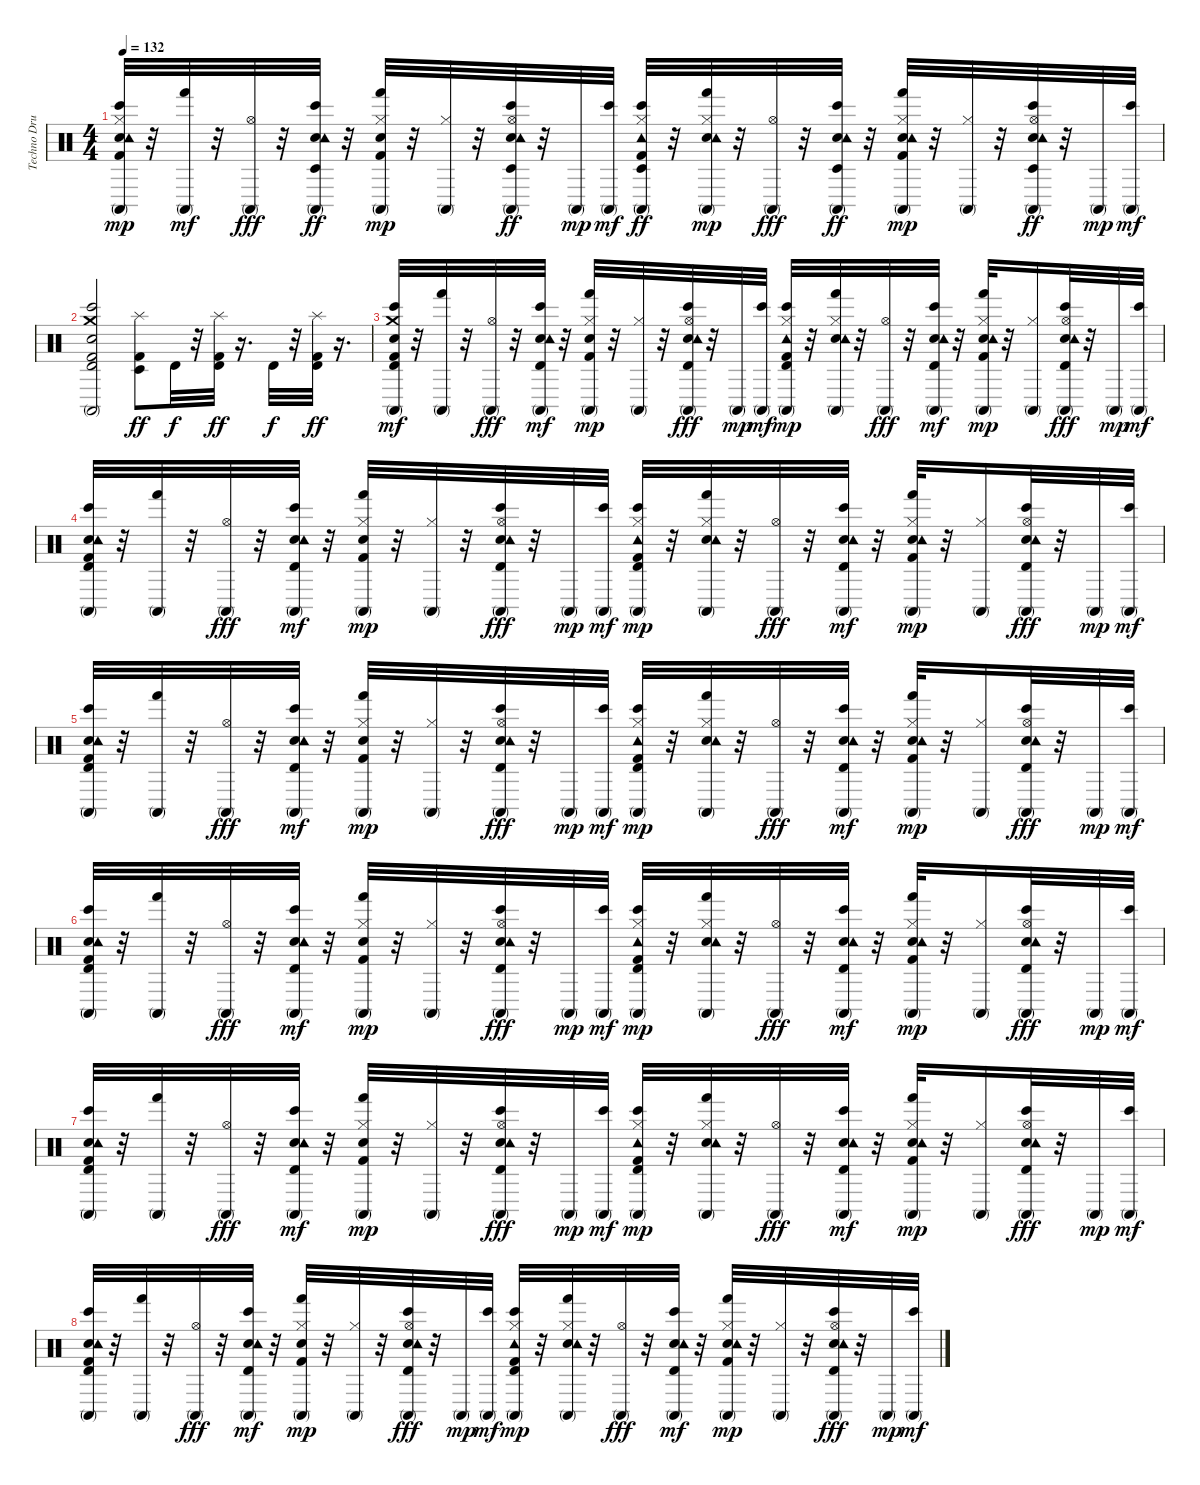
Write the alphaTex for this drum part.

\track ("Techno Drums" "Techno Dru") {instrument percussion}
\staff {score}
\articulation defaults
\ts (4 4)
\tempo 132
\clef neutral
\ks c
("Kick (hit) 2" "Hand Clap (hit)" "Tambourine (hit)" "Conga high (mute)" "Bongo High (hit)" "Hi-Hat (closed)").32{dy mp} r.32 ("Conga high (mute)" "Hand (hit)").32{dy mf} r.32 ("Conga high (mute)" "Hi-Hat (open)").32{dy fff} r.32 ("Hand Clap (hit)" "Tambourine (hit)" "Conga high (mute)" "Bongo High (hit)" "Timbale low (hit)").32{dy ff} r.32 ("Kick (hit) 2" "Hand Clap (hit)" "Conga high (mute)" "Hand (hit)" "Hi-Hat (closed)").32{dy mp} r.32 ("Conga high (mute)" "Hi-Hat (closed)").32 r.32 ("Hand Clap (hit)" "Tambourine (hit)" "Conga high (mute)" "Bongo High (hit)" "Hi-Hat (open)" "Timbale low (hit)").32{dy ff} r.32 "Conga high (mute)".32{dy mp} ("Conga high (mute)" "Bongo High (hit)").32{dy mf} ("Kick (hit) 2" "Tambourine (hit)" "Conga high (mute)" "Bongo High (hit)" "Hi-Hat (closed)" "Timbale low (hit)").32{dy ff} r.32 ("Hand Clap (hit)" "Tambourine (hit)" "Conga high (mute)" "Hand (hit)" "Hi-Hat (closed)").32{dy mp} r.32 ("Conga high (mute)" "Hi-Hat (open)").32{dy fff} r.32 ("Hand Clap (hit)" "Tambourine (hit)" "Conga high (mute)" "Bongo High (hit)" "Timbale low (hit)").32{dy ff} r.32 ("Kick (hit) 2" "Hand Clap (hit)" "Tambourine (hit)" "Conga high (mute)" "Hand (hit)" "Hi-Hat (closed)").32{dy mp} r.32 ("Conga high (mute)" "Hi-Hat (closed)").32 r.32 ("Hand Clap (hit)" "Tambourine (hit)" "Conga high (mute)" "Bongo High (hit)" "Hi-Hat (open)" "Timbale low (hit)").32{dy ff} r.32 "Conga high (mute)".32{dy mp} ("Conga high (mute)" "Bongo High (hit)").32{dy mf} |
("Kick (hit) 2" "Hand Clap (hit)" "Crash medium (hit)" "Conga high (mute)" "Bongo High (hit)" "Timbale high (hit)").2 ("Timbale low (hit)" "Splash (hit)" "Kick (hit) 2").8{dy ff} "Timbale high (hit)".32{dy f} r.32 ("Timbale high (hit)" "Splash (hit)" "Kick (hit) 2").32{dy ff} r.16{d} "Timbale high (hit)".32{dy f} r.32 ("Timbale high (hit)" "Splash (hit)" "Kick (hit) 2").32{dy ff} r.16{d} |
("Kick (hit) 2" "Hand Clap (hit)" "Crash medium (hit)" "Conga high (mute)" "Bongo High (hit)" "Timbale high (hit)").32{dy mf} r.32 ("Conga high (mute)" "Hand (hit)").32 r.32 ("Conga high (mute)" "Hi-Hat (open)").32{dy fff} r.32 ("Hand Clap (hit)" "Tambourine (hit)" "Conga high (mute)" "Bongo High (hit)" "Timbale high (hit)").32{dy mf} r.32 ("Kick (hit) 2" "Hand Clap (hit)" "Conga high (mute)" "Hand (hit)" "Hi-Hat (closed)").32{dy mp} r.32 ("Conga high (mute)" "Hi-Hat (closed)").32 r.32 ("Hand Clap (hit)" "Tambourine (hit)" "Conga high (mute)" "Bongo High (hit)" "Timbale high (hit)" "Hi-Hat (open)").32{dy fff} r.32 "Conga high (mute)".32{dy mp} ("Conga high (mute)" "Bongo High (hit)").32{dy mf} ("Kick (hit) 2" "Tambourine (hit)" "Conga high (mute)" "Bongo High (hit)" "Timbale high (hit)" "Hi-Hat (closed)").32{dy mp} r.32 ("Hand Clap (hit)" "Tambourine (hit)" "Conga high (mute)" "Hand (hit)" "Hi-Hat (closed)").32 r.32 ("Conga high (mute)" "Hi-Hat (open)").32{dy fff} r.32 ("Hand Clap (hit)" "Tambourine (hit)" "Conga high (mute)" "Bongo High (hit)" "Timbale high (hit)").32{dy mf} r.32 ("Kick (hit) 2" "Hand Clap (hit)" "Tambourine (hit)" "Conga high (mute)" "Hand (hit)" "Hi-Hat (closed)").32{dy mp} r.32 ("Conga high (mute)" "Hi-Hat (closed)").16 ("Hand Clap (hit)" "Tambourine (hit)" "Conga high (mute)" "Bongo High (hit)" "Timbale high (hit)" "Hi-Hat (open)").32{dy fff} r.32 "Conga high (mute)".32{dy mp} ("Conga high (mute)" "Bongo High (hit)").32{dy mf} |
("Kick (hit) 2" "Hand Clap (hit)" "Tambourine (hit)" "Conga high (mute)" "Bongo High (hit)" "Timbale high (hit)").32 r.32 ("Conga high (mute)" "Hand (hit)").32 r.32 ("Conga high (mute)" "Hi-Hat (open)").32{dy fff} r.32 ("Hand Clap (hit)" "Tambourine (hit)" "Conga high (mute)" "Bongo High (hit)" "Timbale high (hit)").32{dy mf} r.32 ("Kick (hit) 2" "Hand Clap (hit)" "Conga high (mute)" "Hand (hit)" "Hi-Hat (closed)").32{dy mp} r.32 ("Conga high (mute)" "Hi-Hat (closed)").32 r.32 ("Hand Clap (hit)" "Tambourine (hit)" "Conga high (mute)" "Bongo High (hit)" "Timbale high (hit)" "Hi-Hat (open)").32{dy fff} r.32 "Conga high (mute)".32{dy mp} ("Conga high (mute)" "Bongo High (hit)").32{dy mf} ("Kick (hit) 2" "Tambourine (hit)" "Conga high (mute)" "Bongo High (hit)" "Timbale high (hit)" "Hi-Hat (closed)").32{dy mp} r.32 ("Hand Clap (hit)" "Tambourine (hit)" "Conga high (mute)" "Hand (hit)" "Hi-Hat (closed)").32 r.32 ("Conga high (mute)" "Hi-Hat (open)").32{dy fff} r.32 ("Hand Clap (hit)" "Tambourine (hit)" "Conga high (mute)" "Bongo High (hit)" "Timbale high (hit)").32{dy mf} r.32 ("Kick (hit) 2" "Hand Clap (hit)" "Tambourine (hit)" "Conga high (mute)" "Hand (hit)" "Hi-Hat (closed)").32{dy mp} r.32 ("Conga high (mute)" "Hi-Hat (closed)").16 ("Hand Clap (hit)" "Tambourine (hit)" "Conga high (mute)" "Bongo High (hit)" "Timbale high (hit)" "Hi-Hat (open)").32{dy fff} r.32 "Conga high (mute)".32{dy mp} ("Conga high (mute)" "Bongo High (hit)").32{dy mf} |
("Kick (hit) 2" "Hand Clap (hit)" "Tambourine (hit)" "Conga high (mute)" "Bongo High (hit)" "Timbale high (hit)").32 r.32 ("Conga high (mute)" "Hand (hit)").32 r.32 ("Conga high (mute)" "Hi-Hat (open)").32{dy fff} r.32 ("Hand Clap (hit)" "Tambourine (hit)" "Conga high (mute)" "Bongo High (hit)" "Timbale high (hit)").32{dy mf} r.32 ("Kick (hit) 2" "Hand Clap (hit)" "Conga high (mute)" "Hand (hit)" "Hi-Hat (closed)").32{dy mp} r.32 ("Conga high (mute)" "Hi-Hat (closed)").32 r.32 ("Hand Clap (hit)" "Tambourine (hit)" "Conga high (mute)" "Bongo High (hit)" "Timbale high (hit)" "Hi-Hat (open)").32{dy fff} r.32 "Conga high (mute)".32{dy mp} ("Conga high (mute)" "Bongo High (hit)").32{dy mf} ("Kick (hit) 2" "Tambourine (hit)" "Conga high (mute)" "Bongo High (hit)" "Timbale high (hit)" "Hi-Hat (closed)").32{dy mp} r.32 ("Hand Clap (hit)" "Tambourine (hit)" "Conga high (mute)" "Hand (hit)" "Hi-Hat (closed)").32 r.32 ("Conga high (mute)" "Hi-Hat (open)").32{dy fff} r.32 ("Hand Clap (hit)" "Tambourine (hit)" "Conga high (mute)" "Bongo High (hit)" "Timbale high (hit)").32{dy mf} r.32 ("Kick (hit) 2" "Hand Clap (hit)" "Tambourine (hit)" "Conga high (mute)" "Hand (hit)" "Hi-Hat (closed)").32{dy mp} r.32 ("Conga high (mute)" "Hi-Hat (closed)").16 ("Hand Clap (hit)" "Tambourine (hit)" "Conga high (mute)" "Bongo High (hit)" "Timbale high (hit)" "Hi-Hat (open)").32{dy fff} r.32 "Conga high (mute)".32{dy mp} ("Conga high (mute)" "Bongo High (hit)").32{dy mf} |
("Kick (hit) 2" "Hand Clap (hit)" "Tambourine (hit)" "Conga high (mute)" "Bongo High (hit)" "Timbale high (hit)").32 r.32 ("Conga high (mute)" "Hand (hit)").32 r.32 ("Conga high (mute)" "Hi-Hat (open)").32{dy fff} r.32 ("Hand Clap (hit)" "Tambourine (hit)" "Conga high (mute)" "Bongo High (hit)" "Timbale high (hit)").32{dy mf} r.32 ("Kick (hit) 2" "Hand Clap (hit)" "Conga high (mute)" "Hand (hit)" "Hi-Hat (closed)").32{dy mp} r.32 ("Conga high (mute)" "Hi-Hat (closed)").32 r.32 ("Hand Clap (hit)" "Tambourine (hit)" "Conga high (mute)" "Bongo High (hit)" "Timbale high (hit)" "Hi-Hat (open)").32{dy fff} r.32 "Conga high (mute)".32{dy mp} ("Conga high (mute)" "Bongo High (hit)").32{dy mf} ("Kick (hit) 2" "Tambourine (hit)" "Conga high (mute)" "Bongo High (hit)" "Timbale high (hit)" "Hi-Hat (closed)").32{dy mp} r.32 ("Hand Clap (hit)" "Tambourine (hit)" "Conga high (mute)" "Hand (hit)" "Hi-Hat (closed)").32 r.32 ("Conga high (mute)" "Hi-Hat (open)").32{dy fff} r.32 ("Hand Clap (hit)" "Tambourine (hit)" "Conga high (mute)" "Bongo High (hit)" "Timbale high (hit)").32{dy mf} r.32 ("Kick (hit) 2" "Hand Clap (hit)" "Tambourine (hit)" "Conga high (mute)" "Hand (hit)" "Hi-Hat (closed)").32{dy mp} r.32 ("Conga high (mute)" "Hi-Hat (closed)").16 ("Hand Clap (hit)" "Tambourine (hit)" "Conga high (mute)" "Bongo High (hit)" "Timbale high (hit)" "Hi-Hat (open)").32{dy fff} r.32 "Conga high (mute)".32{dy mp} ("Conga high (mute)" "Bongo High (hit)").32{dy mf} |
("Kick (hit) 2" "Hand Clap (hit)" "Tambourine (hit)" "Conga high (mute)" "Bongo High (hit)" "Timbale high (hit)").32 r.32 ("Conga high (mute)" "Hand (hit)").32 r.32 ("Conga high (mute)" "Hi-Hat (open)").32{dy fff} r.32 ("Hand Clap (hit)" "Tambourine (hit)" "Conga high (mute)" "Bongo High (hit)" "Timbale high (hit)").32{dy mf} r.32 ("Kick (hit) 2" "Hand Clap (hit)" "Conga high (mute)" "Hand (hit)" "Hi-Hat (closed)").32{dy mp} r.32 ("Conga high (mute)" "Hi-Hat (closed)").32 r.32 ("Hand Clap (hit)" "Tambourine (hit)" "Conga high (mute)" "Bongo High (hit)" "Timbale high (hit)" "Hi-Hat (open)").32{dy fff} r.32 "Conga high (mute)".32{dy mp} ("Conga high (mute)" "Bongo High (hit)").32{dy mf} ("Kick (hit) 2" "Tambourine (hit)" "Conga high (mute)" "Bongo High (hit)" "Timbale high (hit)" "Hi-Hat (closed)").32{dy mp} r.32 ("Hand Clap (hit)" "Tambourine (hit)" "Conga high (mute)" "Hand (hit)" "Hi-Hat (closed)").32 r.32 ("Conga high (mute)" "Hi-Hat (open)").32{dy fff} r.32 ("Hand Clap (hit)" "Tambourine (hit)" "Conga high (mute)" "Bongo High (hit)" "Timbale high (hit)").32{dy mf} r.32 ("Kick (hit) 2" "Hand Clap (hit)" "Tambourine (hit)" "Conga high (mute)" "Hand (hit)" "Hi-Hat (closed)").32{dy mp} r.32 ("Conga high (mute)" "Hi-Hat (closed)").16 ("Hand Clap (hit)" "Tambourine (hit)" "Conga high (mute)" "Bongo High (hit)" "Timbale high (hit)" "Hi-Hat (open)").32{dy fff} r.32 "Conga high (mute)".32{dy mp} ("Conga high (mute)" "Bongo High (hit)").32{dy mf} |
("Kick (hit) 2" "Hand Clap (hit)" "Tambourine (hit)" "Conga high (mute)" "Bongo High (hit)" "Timbale high (hit)").32 r.32 ("Conga high (mute)" "Hand (hit)").32 r.32 ("Conga high (mute)" "Hi-Hat (open)").32{dy fff} r.32 ("Hand Clap (hit)" "Tambourine (hit)" "Conga high (mute)" "Bongo High (hit)" "Timbale high (hit)").32{dy mf} r.32 ("Kick (hit) 2" "Hand Clap (hit)" "Conga high (mute)" "Hand (hit)" "Hi-Hat (closed)").32{dy mp} r.32 ("Conga high (mute)" "Hi-Hat (closed)").32 r.32 ("Hand Clap (hit)" "Tambourine (hit)" "Conga high (mute)" "Bongo High (hit)" "Timbale high (hit)" "Hi-Hat (open)").32{dy fff} r.32 "Conga high (mute)".32{dy mp} ("Conga high (mute)" "Bongo High (hit)").32{dy mf} ("Kick (hit) 2" "Tambourine (hit)" "Conga high (mute)" "Bongo High (hit)" "Timbale high (hit)" "Hi-Hat (closed)").32{dy mp} r.32 ("Hand Clap (hit)" "Tambourine (hit)" "Conga high (mute)" "Hand (hit)" "Hi-Hat (closed)").32 r.32 ("Conga high (mute)" "Hi-Hat (open)").32{dy fff} r.32 ("Hand Clap (hit)" "Tambourine (hit)" "Conga high (mute)" "Bongo High (hit)" "Timbale high (hit)").32{dy mf} r.32 ("Kick (hit) 2" "Hand Clap (hit)" "Tambourine (hit)" "Conga high (mute)" "Hand (hit)" "Hi-Hat (closed)").32{dy mp} r.32 ("Conga high (mute)" "Hi-Hat (closed)").32 r.32 ("Hand Clap (hit)" "Tambourine (hit)" "Conga high (mute)" "Bongo High (hit)" "Timbale high (hit)" "Hi-Hat (open)").32{dy fff} r.32 "Conga high (mute)".32{dy mp} ("Conga high (mute)" "Bongo High (hit)").32{dy mf}
